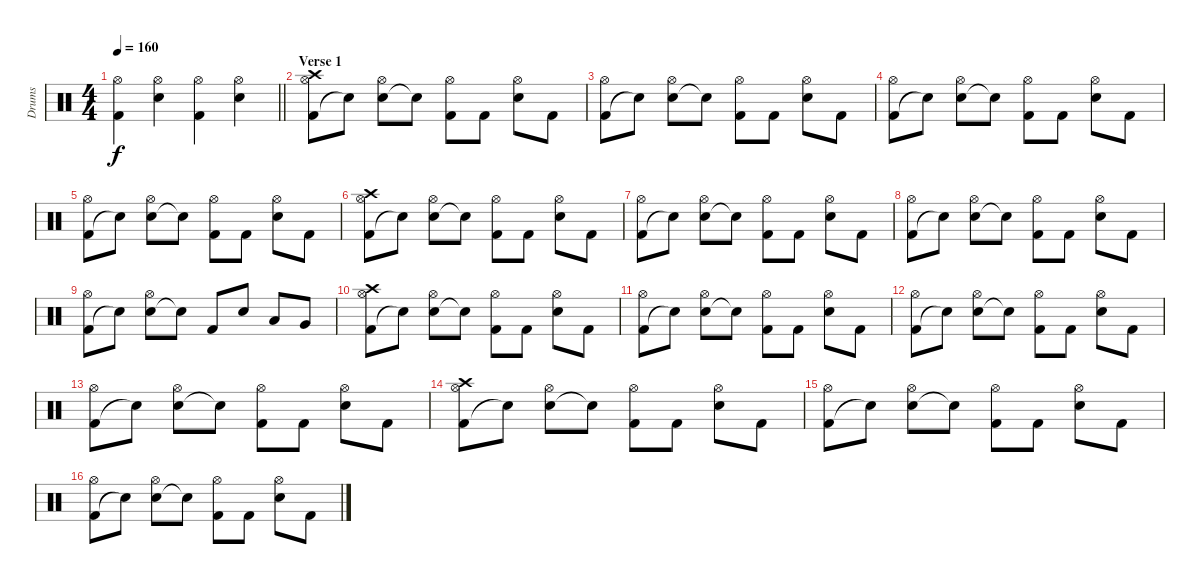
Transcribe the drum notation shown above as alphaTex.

\track ("Drums" "Drums") {instrument percussion}
\staff {score}
\articulation defaults
\ts (4 4)
\tempo 160
\clef neutral
\barLineRight lightlight
\ks c
("Kick (hit) 2" "Hi-Hat (open)").4{dy f} ("Snare (hit) 2" "Hi-Hat (open)").4 ("Kick (hit) 2" "Hi-Hat (open)").4 ("Snare (hit) 2" "Hi-Hat (open)").4 |
\section ("" "Verse 1")
("Kick (hit) 2" "Hi-Hat (open)" "Crash high (hit)").8 "Snare (hit)"{t}.8 ("Snare (hit) 2" "Hi-Hat (open)").8 "Snare (hit)"{t}.8 ("Kick (hit) 2" "Hi-Hat (open)").8 "Kick (hit) 2".8 ("Snare (hit) 2" "Hi-Hat (open)").8 "Kick (hit) 2".8 |
("Kick (hit) 2" "Hi-Hat (open)").8 "Snare (hit)"{t}.8 ("Snare (hit) 2" "Hi-Hat (open)").8 "Snare (hit)"{t}.8 ("Kick (hit) 2" "Hi-Hat (open)").8 "Kick (hit) 2".8 ("Snare (hit) 2" "Hi-Hat (open)").8 "Kick (hit) 2".8 |
("Kick (hit) 2" "Hi-Hat (open)").8 "Snare (hit)"{t}.8 ("Snare (hit) 2" "Hi-Hat (open)").8 "Snare (hit)"{t}.8 ("Kick (hit) 2" "Hi-Hat (open)").8 "Kick (hit) 2".8 ("Snare (hit) 2" "Hi-Hat (open)").8 "Kick (hit) 2".8 |
("Kick (hit) 2" "Hi-Hat (open)").8 "Snare (hit)"{t}.8 ("Snare (hit) 2" "Hi-Hat (open)").8 "Snare (hit)"{t}.8 ("Kick (hit) 2" "Hi-Hat (open)").8 "Kick (hit) 2".8 ("Snare (hit) 2" "Hi-Hat (open)").8 "Kick (hit) 2".8 |
("Kick (hit) 2" "Hi-Hat (open)" "Crash high (hit)").8 "Snare (hit)"{t}.8 ("Snare (hit) 2" "Hi-Hat (open)").8 "Snare (hit)"{t}.8 ("Kick (hit) 2" "Hi-Hat (open)").8 "Kick (hit) 2".8 ("Snare (hit) 2" "Hi-Hat (open)").8 "Kick (hit) 2".8 |
("Kick (hit) 2" "Hi-Hat (open)").8 "Snare (hit)"{t}.8 ("Snare (hit) 2" "Hi-Hat (open)").8 "Snare (hit)"{t}.8 ("Kick (hit) 2" "Hi-Hat (open)").8 "Kick (hit) 2".8 ("Snare (hit) 2" "Hi-Hat (open)").8 "Kick (hit) 2".8 |
("Kick (hit) 2" "Hi-Hat (open)").8 "Snare (hit)"{t}.8 ("Snare (hit) 2" "Hi-Hat (open)").8 "Snare (hit)"{t}.8 ("Kick (hit) 2" "Hi-Hat (open)").8 "Kick (hit) 2".8 ("Snare (hit) 2" "Hi-Hat (open)").8 "Kick (hit) 2".8 |
("Kick (hit) 2" "Hi-Hat (open)").8 "Snare (hit)"{t}.8 ("Snare (hit) 2" "Hi-Hat (open)").8 "Snare (hit)"{t}.8 "Kick (hit) 2".8 "Snare (hit) 2".8 "Low Tom (hit)".8 "Very Low Tom (hit)".8 |
("Kick (hit) 2" "Hi-Hat (open)" "Crash high (hit)").8 "Snare (hit)"{t}.8 ("Snare (hit) 2" "Hi-Hat (open)").8 "Snare (hit)"{t}.8 ("Kick (hit) 2" "Hi-Hat (open)").8 "Kick (hit) 2".8 ("Snare (hit) 2" "Hi-Hat (open)").8 "Kick (hit) 2".8 |
("Kick (hit) 2" "Hi-Hat (open)").8 "Snare (hit)"{t}.8 ("Snare (hit) 2" "Hi-Hat (open)").8 "Snare (hit)"{t}.8 ("Kick (hit) 2" "Hi-Hat (open)").8 "Kick (hit) 2".8 ("Snare (hit) 2" "Hi-Hat (open)").8 "Kick (hit) 2".8 |
("Kick (hit) 2" "Hi-Hat (open)").8 "Snare (hit)"{t}.8 ("Snare (hit) 2" "Hi-Hat (open)").8 "Snare (hit)"{t}.8 ("Kick (hit) 2" "Hi-Hat (open)").8 "Kick (hit) 2".8 ("Snare (hit) 2" "Hi-Hat (open)").8 "Kick (hit) 2".8 |
("Kick (hit) 2" "Hi-Hat (open)").8 "Snare (hit)"{t}.8 ("Snare (hit) 2" "Hi-Hat (open)").8 "Snare (hit)"{t}.8 ("Kick (hit) 2" "Hi-Hat (open)").8 "Kick (hit) 2".8 ("Snare (hit) 2" "Hi-Hat (open)").8 "Kick (hit) 2".8 |
("Kick (hit) 2" "Hi-Hat (open)" "Crash high (hit)").8 "Snare (hit)"{t}.8 ("Snare (hit) 2" "Hi-Hat (open)").8 "Snare (hit)"{t}.8 ("Kick (hit) 2" "Hi-Hat (open)").8 "Kick (hit) 2".8 ("Snare (hit) 2" "Hi-Hat (open)").8 "Kick (hit) 2".8 |
("Kick (hit) 2" "Hi-Hat (open)").8 "Snare (hit)"{t}.8 ("Snare (hit) 2" "Hi-Hat (open)").8 "Snare (hit)"{t}.8 ("Kick (hit) 2" "Hi-Hat (open)").8 "Kick (hit) 2".8 ("Snare (hit) 2" "Hi-Hat (open)").8 "Kick (hit) 2".8 |
("Kick (hit) 2" "Hi-Hat (open)").8 "Snare (hit)"{t}.8 ("Snare (hit) 2" "Hi-Hat (open)").8 "Snare (hit)"{t}.8 ("Kick (hit) 2" "Hi-Hat (open)").8 "Kick (hit) 2".8 ("Snare (hit) 2" "Hi-Hat (open)").8 "Kick (hit) 2".8
